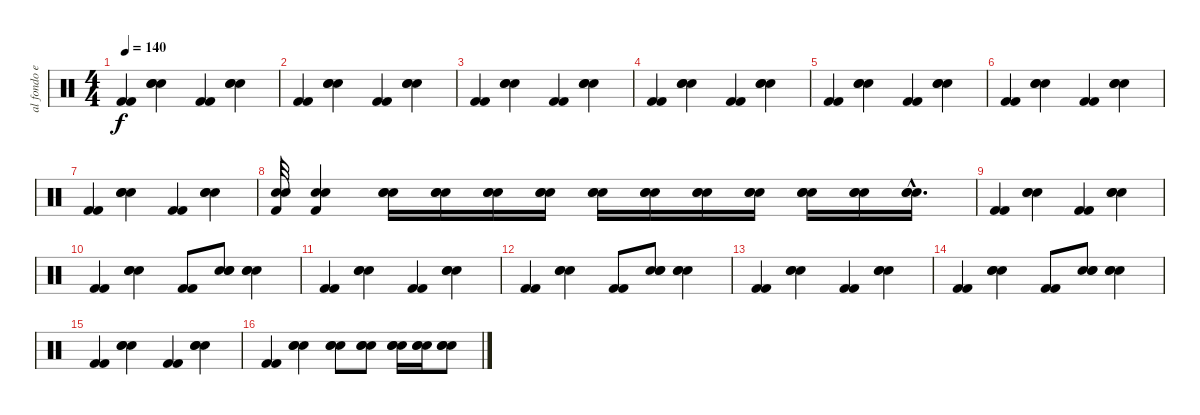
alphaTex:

\track ("al fondo en la bateria Mr Pedro Andreu" "al fondo e") {instrument percussion}
\staff {score}
\articulation defaults
\ts (4 4)
\tempo 140
\clef neutral
\ks c
("Kick (hit) 2" "Kick (hit) 2").4{dy f} ("Snare (hit) 2" "Snare (hit) 2" "Snare (hit) 2").4 ("Kick (hit) 2" "Kick (hit) 2").4 ("Snare (hit) 2" "Snare (hit) 2" "Snare (hit) 2").4 |
("Kick (hit) 2" "Kick (hit) 2").4 ("Snare (hit) 2" "Snare (hit) 2" "Snare (hit) 2").4 ("Kick (hit) 2" "Kick (hit) 2").4 ("Snare (hit) 2" "Snare (hit) 2" "Snare (hit) 2").4 |
("Kick (hit) 2" "Kick (hit) 2").4 ("Snare (hit) 2" "Snare (hit) 2" "Snare (hit) 2").4 ("Kick (hit) 2" "Kick (hit) 2").4 ("Snare (hit) 2" "Snare (hit) 2" "Snare (hit) 2").4 |
("Kick (hit) 2" "Kick (hit) 2").4 ("Snare (hit) 2" "Snare (hit) 2" "Snare (hit) 2").4 ("Kick (hit) 2" "Kick (hit) 2").4 ("Snare (hit) 2" "Snare (hit) 2" "Snare (hit) 2").4 |
("Kick (hit) 2" "Kick (hit) 2").4 ("Snare (hit) 2" "Snare (hit) 2" "Snare (hit) 2").4 ("Kick (hit) 2" "Kick (hit) 2").4 ("Snare (hit) 2" "Snare (hit) 2" "Snare (hit) 2").4 |
("Kick (hit) 2" "Kick (hit) 2").4 ("Snare (hit) 2" "Snare (hit) 2" "Snare (hit) 2").4 ("Kick (hit) 2" "Kick (hit) 2").4 ("Snare (hit) 2" "Snare (hit) 2" "Snare (hit) 2").4 |
("Kick (hit) 2" "Kick (hit) 2").4 ("Snare (hit) 2" "Snare (hit) 2" "Snare (hit) 2").4 ("Kick (hit) 2" "Kick (hit) 2").4 ("Snare (hit) 2" "Snare (hit) 2" "Snare (hit) 2").4 |
("Snare (hit) 2" "Snare (hit) 2" "Kick (hit) 2").32 ("Snare (hit) 2" "Snare (hit) 2" "Kick (hit) 2").4 ("Snare (hit) 2" "Snare (hit) 2" "Snare (hit) 2").16 ("Snare (hit) 2" "Snare (hit) 2" "Snare (hit) 2").16 ("Snare (hit) 2" "Snare (hit) 2" "Snare (hit) 2").16 ("Snare (hit) 2" "Snare (hit) 2" "Snare (hit) 2").16 ("Snare (hit) 2" "Snare (hit) 2" "Snare (hit) 2").16 ("Snare (hit) 2" "Snare (hit) 2" "Snare (hit) 2").16 ("Snare (hit) 2" "Snare (hit) 2" "Snare (hit) 2").16 ("Snare (hit) 2" "Snare (hit) 2" "Snare (hit) 2").16 ("Snare (hit) 2" "Snare (hit) 2" "Snare (hit) 2").16 ("Snare (hit) 2" "Snare (hit) 2" "Snare (hit) 2").16 ("Snare (hit) 2"{hac} "Snare (hit) 2"{hac} "Snare (hit) 2"{hac}).16{d} |
("Kick (hit) 2" "Kick (hit) 2").4 ("Snare (hit) 2" "Snare (hit) 2" "Snare (hit) 2").4 ("Kick (hit) 2" "Kick (hit) 2").4 ("Snare (hit) 2" "Snare (hit) 2" "Snare (hit) 2").4 |
("Kick (hit) 2" "Kick (hit) 2").4 ("Snare (hit) 2" "Snare (hit) 2" "Snare (hit) 2").4 ("Kick (hit) 2" "Kick (hit) 2").8 ("Snare (hit) 2" "Snare (hit) 2" "Snare (hit) 2").8 ("Snare (hit) 2" "Snare (hit) 2" "Snare (hit) 2").4 |
("Kick (hit) 2" "Kick (hit) 2").4 ("Snare (hit) 2" "Snare (hit) 2" "Snare (hit) 2").4 ("Kick (hit) 2" "Kick (hit) 2").4 ("Snare (hit) 2" "Snare (hit) 2" "Snare (hit) 2").4 |
("Kick (hit) 2" "Kick (hit) 2").4 ("Snare (hit) 2" "Snare (hit) 2" "Snare (hit) 2").4 ("Kick (hit) 2" "Kick (hit) 2").8 ("Snare (hit) 2" "Snare (hit) 2" "Snare (hit) 2").8 ("Snare (hit) 2" "Snare (hit) 2" "Snare (hit) 2").4 |
("Kick (hit) 2" "Kick (hit) 2").4 ("Snare (hit) 2" "Snare (hit) 2" "Snare (hit) 2").4 ("Kick (hit) 2" "Kick (hit) 2").4 ("Snare (hit) 2" "Snare (hit) 2" "Snare (hit) 2").4 |
("Kick (hit) 2" "Kick (hit) 2").4 ("Snare (hit) 2" "Snare (hit) 2" "Snare (hit) 2").4 ("Kick (hit) 2" "Kick (hit) 2").8 ("Snare (hit) 2" "Snare (hit) 2" "Snare (hit) 2").8 ("Snare (hit) 2" "Snare (hit) 2" "Snare (hit) 2").4 |
("Kick (hit) 2" "Kick (hit) 2").4 ("Snare (hit) 2" "Snare (hit) 2" "Snare (hit) 2").4 ("Kick (hit) 2" "Kick (hit) 2").4 ("Snare (hit) 2" "Snare (hit) 2" "Snare (hit) 2").4 |
("Kick (hit) 2" "Kick (hit) 2").4 ("Snare (hit) 2" "Snare (hit) 2" "Snare (hit) 2").4 ("Snare (hit) 2" "Snare (hit) 2" "Snare (hit) 2").8 ("Snare (hit) 2" "Snare (hit) 2" "Snare (hit) 2").8 ("Snare (hit) 2" "Snare (hit) 2" "Snare (hit) 2").16 ("Snare (hit) 2" "Snare (hit) 2" "Snare (hit) 2").16 ("Snare (hit) 2" "Snare (hit) 2" "Snare (hit) 2").8
